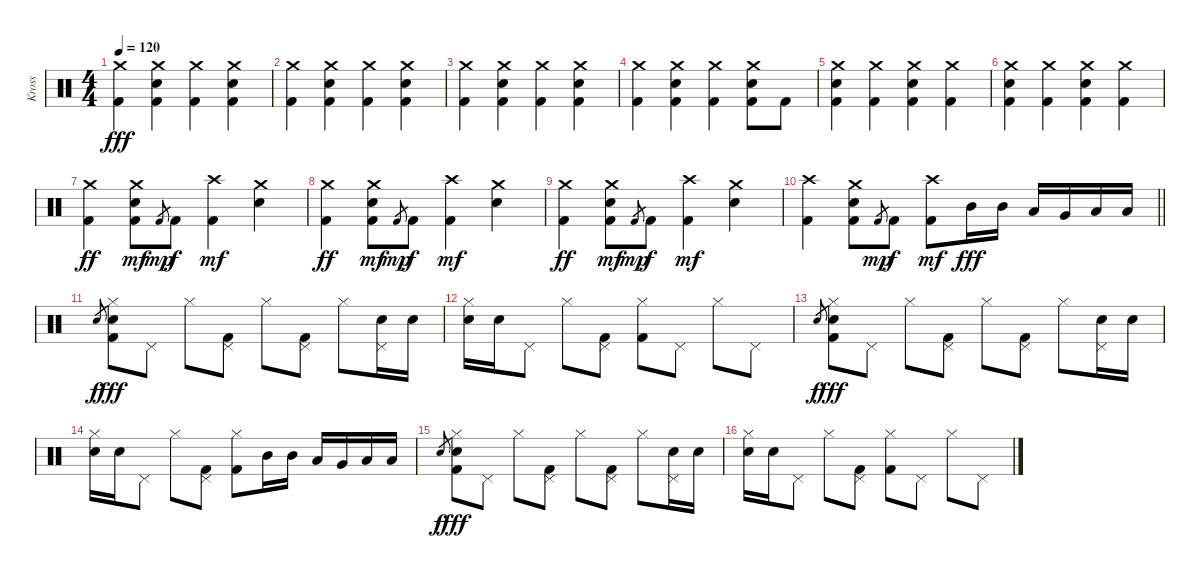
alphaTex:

\track ("Kross" "Kross") {instrument percussion}
\staff {score}
\articulation defaults
\ts (4 4)
\tempo 120
\clef neutral
\ks c
("Crash medium (hit)" "Kick (hit) 2").4{dy fff} ("Snare (hit) 2" "Crash medium (hit)" "Kick (hit) 2").4 ("Crash medium (hit)" "Kick (hit) 2").4 ("Snare (hit) 2" "Crash medium (hit)" "Kick (hit) 2").4 |
("Crash medium (hit)" "Kick (hit) 2").4 ("Snare (hit) 2" "Crash medium (hit)" "Kick (hit) 2").4 ("Crash medium (hit)" "Kick (hit) 2").4 ("Snare (hit) 2" "Crash medium (hit)" "Kick (hit) 2").4 |
("Crash medium (hit)" "Kick (hit) 2").4 ("Snare (hit) 2" "Crash medium (hit)" "Kick (hit) 2").4 ("Crash medium (hit)" "Kick (hit) 2").4 ("Snare (hit) 2" "Crash medium (hit)" "Kick (hit) 2").4 |
("Crash medium (hit)" "Kick (hit) 2").4 ("Snare (hit) 2" "Crash medium (hit)" "Kick (hit) 2").4 ("Crash medium (hit)" "Kick (hit) 2").4 ("Snare (hit) 2" "Crash medium (hit)" "Kick (hit) 2").8 "Kick (hit) 2".8 |
("Snare (hit) 2" "Crash medium (hit)" "Kick (hit) 2").4 ("Crash medium (hit)" "Kick (hit) 2").4 ("Snare (hit) 2" "Crash medium (hit)" "Kick (hit) 2").4 ("Crash medium (hit)" "Kick (hit) 2").4 |
("Snare (hit) 2" "Crash medium (hit)" "Kick (hit) 2").4 ("Crash medium (hit)" "Kick (hit) 2").4 ("Snare (hit) 2" "Crash medium (hit)" "Kick (hit) 2").4 ("Crash medium (hit)" "Kick (hit) 2").4 |
("Kick (hit) 2" "Crash medium (hit)").4{dy ff} ("Kick (hit) 2" "Crash medium (hit)" "Snare (hit) 2").8{dy mf} "Kick (hit) 2".8{gr dy mp} "Kick (hit) 2".8{dy f} ("Kick (hit) 2" "Crash high (hit)").4{dy mf} ("Crash medium (hit)" "Electric Snare (hit)").4 |
("Kick (hit) 2" "Crash medium (hit)").4{dy ff} ("Kick (hit) 2" "Crash medium (hit)" "Snare (hit) 2").8{dy mf} "Kick (hit) 2".8{gr dy mp} "Kick (hit) 2".8{dy f} ("Kick (hit) 2" "Crash high (hit)").4{dy mf} ("Crash medium (hit)" "Electric Snare (hit)").4 |
("Kick (hit) 2" "Crash medium (hit)").4{dy ff} ("Kick (hit) 2" "Crash medium (hit)" "Snare (hit) 2").8{dy mf} "Kick (hit) 2".8{gr dy mp} "Kick (hit) 2".8{dy f} ("Kick (hit) 2" "Crash high (hit)").4{dy mf} ("Crash medium (hit)" "Electric Snare (hit)").4 |
\barLineRight lightlight
("Kick (hit) 2" "Crash high (hit)").4 ("Kick (hit) 2" "Crash medium (hit)" "Electric Snare (hit)").8 "Kick (hit) 2".8{gr dy mp} "Kick (hit) 2".8{dy f} ("Kick (hit) 2" "Crash high (hit)").8{dy mf} "Mid Tom (hit)".16{dy fff} "Mid Tom (hit)".16 "Low Tom (hit)".16 "Very Low Tom (hit)".16 "Low Floor Tom (hit)".16 "Low Floor Tom (hit)".16 |
"Electric Snare (hit)".8{gr dy f} ("Electric Snare (hit)" "Kick (hit) 2" "Hi-Hat (closed)").8{dy fff} "Pedal Hi-Hat (hit)".8 "Hi-Hat (closed)".8 ("Kick (hit) 2" "Pedal Hi-Hat (hit)").8 "Hi-Hat (closed)".8 ("Kick (hit) 2" "Pedal Hi-Hat (hit)").8 "Hi-Hat (closed)".8 ("Electric Snare (hit)" "Pedal Hi-Hat (hit)").16 "Electric Snare (hit)".16 |
("Electric Snare (hit)" "Hi-Hat (closed)").16 "Electric Snare (hit)".16 "Pedal Hi-Hat (hit)".8 "Hi-Hat (closed)".8 ("Kick (hit) 2" "Pedal Hi-Hat (hit)").8 ("Kick (hit) 2" "Hi-Hat (closed)").8 "Pedal Hi-Hat (hit)".8 "Hi-Hat (closed)".8 "Pedal Hi-Hat (hit)".8 |
"Electric Snare (hit)".8{gr dy f} ("Electric Snare (hit)" "Kick (hit) 2" "Hi-Hat (closed)").8{dy fff} "Pedal Hi-Hat (hit)".8 "Hi-Hat (closed)".8 ("Kick (hit) 2" "Pedal Hi-Hat (hit)").8 "Hi-Hat (closed)".8 ("Kick (hit) 2" "Pedal Hi-Hat (hit)").8 "Hi-Hat (closed)".8 ("Electric Snare (hit)" "Pedal Hi-Hat (hit)").16 "Electric Snare (hit)".16 |
("Electric Snare (hit)" "Hi-Hat (closed)").16 "Electric Snare (hit)".16 "Pedal Hi-Hat (hit)".8 "Hi-Hat (closed)".8 ("Kick (hit) 2" "Pedal Hi-Hat (hit)").8 ("Kick (hit) 2" "Hi-Hat (closed)").8 "Mid Tom (hit)".16 "Mid Tom (hit)".16 "Low Tom (hit)".16 "Very Low Tom (hit)".16 "Low Floor Tom (hit)".16 "Low Floor Tom (hit)".16 |
"Electric Snare (hit)".8{gr dy f} ("Electric Snare (hit)" "Kick (hit) 2" "Hi-Hat (closed)").8{dy fff} "Pedal Hi-Hat (hit)".8 "Hi-Hat (closed)".8 ("Kick (hit) 2" "Pedal Hi-Hat (hit)").8 "Hi-Hat (closed)".8 ("Kick (hit) 2" "Pedal Hi-Hat (hit)").8 "Hi-Hat (closed)".8 ("Electric Snare (hit)" "Pedal Hi-Hat (hit)").16 "Electric Snare (hit)".16 |
("Electric Snare (hit)" "Hi-Hat (closed)").16 "Electric Snare (hit)".16 "Pedal Hi-Hat (hit)".8 "Hi-Hat (closed)".8 ("Kick (hit) 2" "Pedal Hi-Hat (hit)").8 ("Kick (hit) 2" "Hi-Hat (closed)").8 "Pedal Hi-Hat (hit)".8 "Hi-Hat (closed)".8 "Pedal Hi-Hat (hit)".8
